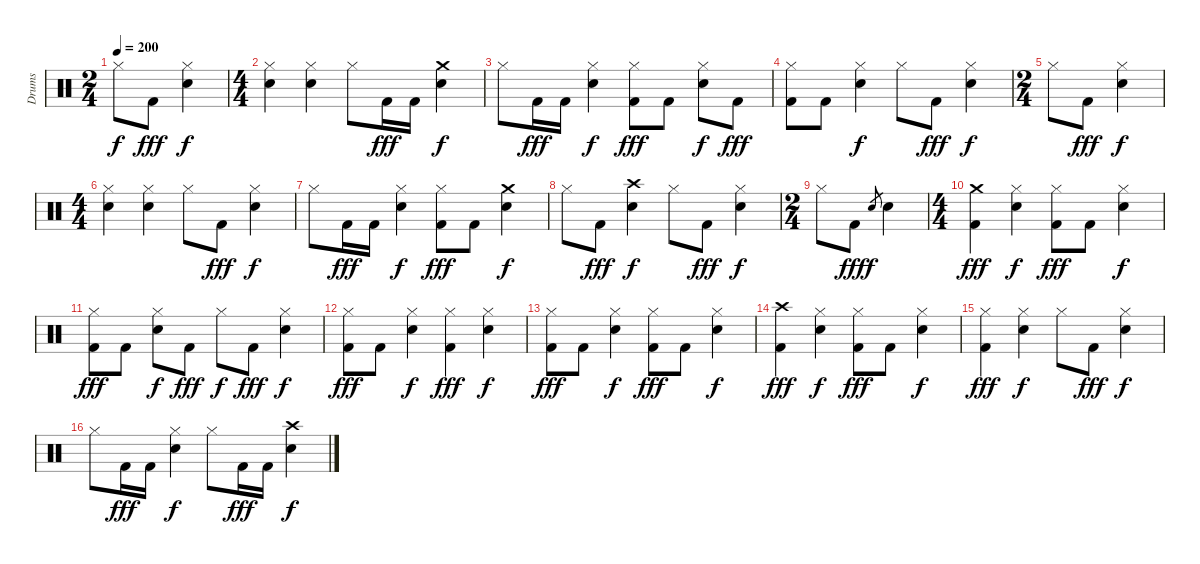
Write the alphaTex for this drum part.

\track ("Drums" "Drums") {instrument percussion}
\staff {score}
\articulation defaults
\ts (2 4)
\tempo 200
\clef neutral
\ks c "Hi-Hat (closed)".8{dy f} "Kick (hit) 2".8{dy fff}
("Hi-Hat (closed)" "Snare (hit) 2").4{dy f} |
\ts (4 4)
("Hi-Hat (closed)" "Snare (hit) 2").4 ("Hi-Hat (closed)" "Snare (hit) 2").4 "Hi-Hat (closed)".8 "Kick (hit) 2".16{dy fff} "Kick (hit) 2".16 ("Crash medium (hit)" "Snare (hit) 2").4{dy f} |
"Hi-Hat (closed)".8 "Kick (hit) 2".16{dy fff} "Kick (hit) 2".16 ("Hi-Hat (closed)" "Snare (hit) 2").4{dy f} ("Hi-Hat (closed)" "Kick (hit) 2").8{dy fff} "Kick (hit) 2".8 ("Hi-Hat (closed)" "Snare (hit) 2").8{dy f} "Kick (hit) 2".8{dy fff} |
("Hi-Hat (closed)" "Kick (hit) 2").8 "Kick (hit) 2".8 ("Hi-Hat (closed)" "Snare (hit) 2").4{dy f} "Hi-Hat (closed)".8 "Kick (hit) 2".8{dy fff} ("Hi-Hat (closed)" "Snare (hit) 2").4{dy f} |
\ts (2 4)
"Hi-Hat (closed)".8 "Kick (hit) 2".8{dy fff} ("Hi-Hat (closed)" "Snare (hit) 2").4{dy f} |
\ts (4 4)
("Hi-Hat (closed)" "Snare (hit) 2").4 ("Hi-Hat (closed)" "Snare (hit) 2").4 "Hi-Hat (closed)".8 "Kick (hit) 2".8{dy fff} ("Hi-Hat (closed)" "Snare (hit) 2").4{dy f} |
"Hi-Hat (closed)".8 "Kick (hit) 2".16{dy fff} "Kick (hit) 2".16 ("Hi-Hat (closed)" "Snare (hit) 2").4{dy f} ("Hi-Hat (closed)" "Kick (hit) 2").8{dy fff} "Kick (hit) 2".8 ("Crash medium (hit)" "Snare (hit) 2").4{dy f} |
"Hi-Hat (closed)".8 "Kick (hit) 2".8{dy fff} ("Crash high (hit)" "Snare (hit) 2").4{dy f} "Hi-Hat (closed)".8 "Kick (hit) 2".8{dy fff} ("Hi-Hat (closed)" "Snare (hit) 2").4{dy f} |
\ts (2 4)
"Hi-Hat (closed)".8 "Kick (hit) 2".8{dy fff} "Snare (hit) 2".8{gr dy f} "Snare (hit) 2".4 |
\ts (4 4)
("Crash medium (hit)" "Kick (hit) 2").4{dy fff} ("Hi-Hat (closed)" "Snare (hit) 2").4{dy f} ("Hi-Hat (closed)" "Kick (hit) 2").8{dy fff} "Kick (hit) 2".8 ("Hi-Hat (closed)" "Snare (hit) 2").4{dy f} |
("Hi-Hat (closed)" "Kick (hit) 2").8{dy fff} "Kick (hit) 2".8 ("Hi-Hat (closed)" "Snare (hit) 2").8{dy f} "Kick (hit) 2".8{dy fff} "Hi-Hat (closed)".8{dy f} "Kick (hit) 2".8{dy fff} ("Hi-Hat (closed)" "Snare (hit) 2").4{dy f} |
("Hi-Hat (closed)" "Kick (hit) 2").8{dy fff} "Kick (hit) 2".8 ("Hi-Hat (closed)" "Snare (hit) 2").4{dy f} ("Hi-Hat (closed)" "Kick (hit) 2").4{dy fff} ("Hi-Hat (closed)" "Snare (hit) 2").4{dy f} |
("Hi-Hat (closed)" "Kick (hit) 2").8{dy fff} "Kick (hit) 2".8 ("Hi-Hat (closed)" "Snare (hit) 2").4{dy f} ("Hi-Hat (closed)" "Kick (hit) 2").8{dy fff} "Kick (hit) 2".8 ("Hi-Hat (closed)" "Snare (hit) 2").4{dy f} |
("Crash high (hit)" "Kick (hit) 2").4{dy fff} ("Hi-Hat (closed)" "Snare (hit) 2").4{dy f} ("Hi-Hat (closed)" "Kick (hit) 2").8{dy fff} "Kick (hit) 2".8 ("Hi-Hat (closed)" "Snare (hit) 2").4{dy f} |
("Hi-Hat (closed)" "Kick (hit) 2").4{dy fff} ("Hi-Hat (closed)" "Snare (hit) 2").4{dy f} "Hi-Hat (closed)".8 "Kick (hit) 2".8{dy fff} ("Hi-Hat (closed)" "Snare (hit) 2").4{dy f} |
"Hi-Hat (closed)".8 "Kick (hit) 2".16{dy fff} "Kick (hit) 2".16 ("Hi-Hat (closed)" "Snare (hit) 2").4{dy f} "Hi-Hat (closed)".8 "Kick (hit) 2".16{dy fff} "Kick (hit) 2".16 ("Crash high (hit)" "Snare (hit) 2").4{dy f}
